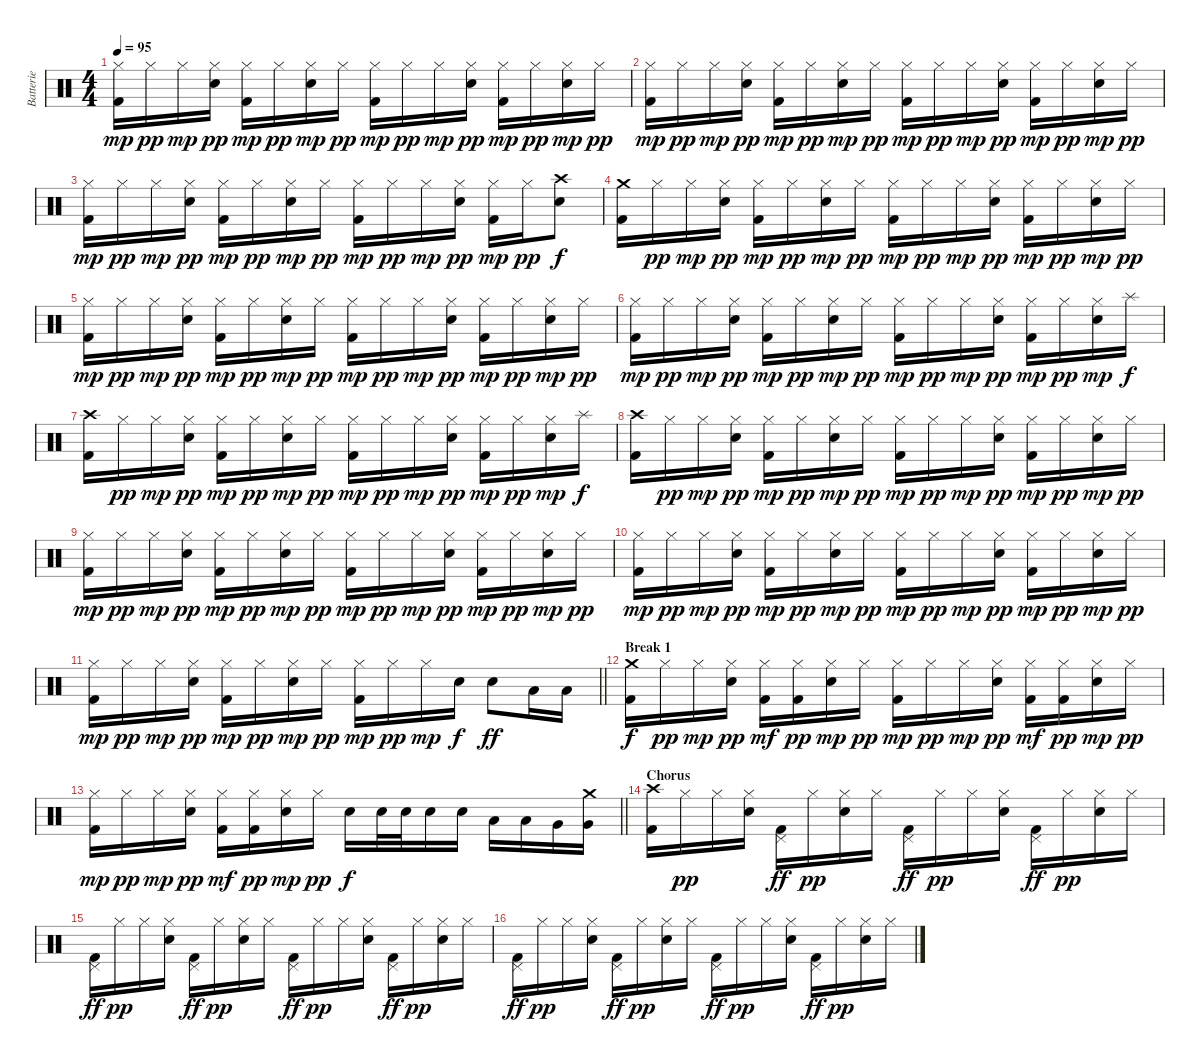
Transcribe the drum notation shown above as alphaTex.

\track ("Batterie" "Batterie") {instrument percussion}
\staff {score}
\articulation defaults
\ts (4 4)
\tempo 95
\clef neutral
\ks c
("Hi-Hat (closed)" "Kick (hit) 2").16{dy mp} "Hi-Hat (closed)".16{dy pp} "Hi-Hat (closed)".16{dy mp} ("Hi-Hat (closed)" "Electric Snare (hit)").16{dy pp} ("Hi-Hat (closed)" "Kick (hit) 2").16{dy mp} "Hi-Hat (closed)".16{dy pp} ("Hi-Hat (closed)" "Electric Snare (hit)").16{dy mp} "Hi-Hat (closed)".16{dy pp} ("Hi-Hat (closed)" "Kick (hit) 2").16{dy mp} "Hi-Hat (closed)".16{dy pp} "Hi-Hat (closed)".16{dy mp} ("Hi-Hat (closed)" "Electric Snare (hit)").16{dy pp} ("Hi-Hat (closed)" "Kick (hit) 2").16{dy mp} "Hi-Hat (closed)".16{dy pp} ("Hi-Hat (closed)" "Electric Snare (hit)").16{dy mp} "Hi-Hat (closed)".16{dy pp} |
("Hi-Hat (closed)" "Kick (hit) 2").16{dy mp} "Hi-Hat (closed)".16{dy pp} "Hi-Hat (closed)".16{dy mp} ("Hi-Hat (closed)" "Electric Snare (hit)").16{dy pp} ("Hi-Hat (closed)" "Kick (hit) 2").16{dy mp} "Hi-Hat (closed)".16{dy pp} ("Hi-Hat (closed)" "Electric Snare (hit)").16{dy mp} "Hi-Hat (closed)".16{dy pp} ("Hi-Hat (closed)" "Kick (hit) 2").16{dy mp} "Hi-Hat (closed)".16{dy pp} "Hi-Hat (closed)".16{dy mp} ("Hi-Hat (closed)" "Electric Snare (hit)").16{dy pp} ("Hi-Hat (closed)" "Kick (hit) 2").16{dy mp} "Hi-Hat (closed)".16{dy pp} ("Hi-Hat (closed)" "Electric Snare (hit)").16{dy mp} "Hi-Hat (closed)".16{dy pp} |
("Hi-Hat (closed)" "Kick (hit) 2").16{dy mp} "Hi-Hat (closed)".16{dy pp} "Hi-Hat (closed)".16{dy mp} ("Hi-Hat (closed)" "Electric Snare (hit)").16{dy pp} ("Hi-Hat (closed)" "Kick (hit) 2").16{dy mp} "Hi-Hat (closed)".16{dy pp} ("Hi-Hat (closed)" "Electric Snare (hit)").16{dy mp} "Hi-Hat (closed)".16{dy pp} ("Hi-Hat (closed)" "Kick (hit) 2").16{dy mp} "Hi-Hat (closed)".16{dy pp} "Hi-Hat (closed)".16{dy mp} ("Hi-Hat (closed)" "Electric Snare (hit)").16{dy pp} ("Hi-Hat (closed)" "Kick (hit) 2").16{dy mp} "Hi-Hat (closed)".16{dy pp} ("Crash high (hit)" "Electric Snare (hit)").8{dy f} |
("Crash medium (hit)" "Kick (hit) 2").16 "Hi-Hat (closed)".16{dy pp} "Hi-Hat (closed)".16{dy mp} ("Hi-Hat (closed)" "Electric Snare (hit)").16{dy pp} ("Hi-Hat (closed)" "Kick (hit) 2").16{dy mp} "Hi-Hat (closed)".16{dy pp} ("Hi-Hat (closed)" "Electric Snare (hit)").16{dy mp} "Hi-Hat (closed)".16{dy pp} ("Hi-Hat (closed)" "Kick (hit) 2").16{dy mp} "Hi-Hat (closed)".16{dy pp} "Hi-Hat (closed)".16{dy mp} ("Hi-Hat (closed)" "Electric Snare (hit)").16{dy pp} ("Hi-Hat (closed)" "Kick (hit) 2").16{dy mp} "Hi-Hat (closed)".16{dy pp} ("Hi-Hat (closed)" "Electric Snare (hit)").16{dy mp} "Hi-Hat (closed)".16{dy pp} |
("Hi-Hat (closed)" "Kick (hit) 2").16{dy mp} "Hi-Hat (closed)".16{dy pp} "Hi-Hat (closed)".16{dy mp} ("Hi-Hat (closed)" "Electric Snare (hit)").16{dy pp} ("Hi-Hat (closed)" "Kick (hit) 2").16{dy mp} "Hi-Hat (closed)".16{dy pp} ("Hi-Hat (closed)" "Electric Snare (hit)").16{dy mp} "Hi-Hat (closed)".16{dy pp} ("Hi-Hat (closed)" "Kick (hit) 2").16{dy mp} "Hi-Hat (closed)".16{dy pp} "Hi-Hat (closed)".16{dy mp} ("Hi-Hat (closed)" "Electric Snare (hit)").16{dy pp} ("Hi-Hat (closed)" "Kick (hit) 2").16{dy mp} "Hi-Hat (closed)".16{dy pp} ("Hi-Hat (closed)" "Electric Snare (hit)").16{dy mp} "Hi-Hat (closed)".16{dy pp} |
("Hi-Hat (closed)" "Kick (hit) 2").16{dy mp} "Hi-Hat (closed)".16{dy pp} "Hi-Hat (closed)".16{dy mp} ("Hi-Hat (closed)" "Electric Snare (hit)").16{dy pp} ("Hi-Hat (closed)" "Kick (hit) 2").16{dy mp} "Hi-Hat (closed)".16{dy pp} ("Hi-Hat (closed)" "Electric Snare (hit)").16{dy mp} "Hi-Hat (closed)".16{dy pp} ("Hi-Hat (closed)" "Kick (hit) 2").16{dy mp} "Hi-Hat (closed)".16{dy pp} "Hi-Hat (closed)".16{dy mp} ("Hi-Hat (closed)" "Electric Snare (hit)").16{dy pp} ("Hi-Hat (closed)" "Kick (hit) 2").16{dy mp} "Hi-Hat (closed)".16{dy pp} ("Hi-Hat (closed)" "Electric Snare (hit)").16{dy mp} "Splash (hit)".16{dy f} |
("Crash high (hit)" "Kick (hit) 2").16 "Hi-Hat (closed)".16{dy pp} "Hi-Hat (closed)".16{dy mp} ("Hi-Hat (closed)" "Electric Snare (hit)").16{dy pp} ("Hi-Hat (closed)" "Kick (hit) 2").16{dy mp} "Hi-Hat (closed)".16{dy pp} ("Hi-Hat (closed)" "Electric Snare (hit)").16{dy mp} "Hi-Hat (closed)".16{dy pp} ("Hi-Hat (closed)" "Kick (hit) 2").16{dy mp} "Hi-Hat (closed)".16{dy pp} "Hi-Hat (closed)".16{dy mp} ("Hi-Hat (closed)" "Electric Snare (hit)").16{dy pp} ("Hi-Hat (closed)" "Kick (hit) 2").16{dy mp} "Hi-Hat (closed)".16{dy pp} ("Hi-Hat (closed)" "Electric Snare (hit)").16{dy mp} "Splash (hit)".16{dy f} |
("Crash high (hit)" "Kick (hit) 2").16 "Hi-Hat (closed)".16{dy pp} "Hi-Hat (closed)".16{dy mp} ("Hi-Hat (closed)" "Electric Snare (hit)").16{dy pp} ("Hi-Hat (closed)" "Kick (hit) 2").16{dy mp} "Hi-Hat (closed)".16{dy pp} ("Hi-Hat (closed)" "Electric Snare (hit)").16{dy mp} "Hi-Hat (closed)".16{dy pp} ("Hi-Hat (closed)" "Kick (hit) 2").16{dy mp} "Hi-Hat (closed)".16{dy pp} "Hi-Hat (closed)".16{dy mp} ("Hi-Hat (closed)" "Electric Snare (hit)").16{dy pp} ("Hi-Hat (closed)" "Kick (hit) 2").16{dy mp} "Hi-Hat (closed)".16{dy pp} ("Hi-Hat (closed)" "Electric Snare (hit)").16{dy mp} "Hi-Hat (closed)".16{dy pp} |
("Hi-Hat (closed)" "Kick (hit) 2").16{dy mp} "Hi-Hat (closed)".16{dy pp} "Hi-Hat (closed)".16{dy mp} ("Hi-Hat (closed)" "Electric Snare (hit)").16{dy pp} ("Hi-Hat (closed)" "Kick (hit) 2").16{dy mp} "Hi-Hat (closed)".16{dy pp} ("Hi-Hat (closed)" "Electric Snare (hit)").16{dy mp} "Hi-Hat (closed)".16{dy pp} ("Hi-Hat (closed)" "Kick (hit) 2").16{dy mp} "Hi-Hat (closed)".16{dy pp} "Hi-Hat (closed)".16{dy mp} ("Hi-Hat (closed)" "Electric Snare (hit)").16{dy pp} ("Hi-Hat (closed)" "Kick (hit) 2").16{dy mp} "Hi-Hat (closed)".16{dy pp} ("Hi-Hat (closed)" "Electric Snare (hit)").16{dy mp} "Hi-Hat (closed)".16{dy pp} |
("Hi-Hat (closed)" "Kick (hit) 2").16{dy mp} "Hi-Hat (closed)".16{dy pp} "Hi-Hat (closed)".16{dy mp} ("Hi-Hat (closed)" "Electric Snare (hit)").16{dy pp} ("Hi-Hat (closed)" "Kick (hit) 2").16{dy mp} "Hi-Hat (closed)".16{dy pp} ("Hi-Hat (closed)" "Electric Snare (hit)").16{dy mp} "Hi-Hat (closed)".16{dy pp} ("Hi-Hat (closed)" "Kick (hit) 2").16{dy mp} "Hi-Hat (closed)".16{dy pp} "Hi-Hat (closed)".16{dy mp} ("Hi-Hat (closed)" "Electric Snare (hit)").16{dy pp} ("Hi-Hat (closed)" "Kick (hit) 2").16{dy mp} "Hi-Hat (closed)".16{dy pp} ("Hi-Hat (closed)" "Electric Snare (hit)").16{dy mp} "Hi-Hat (closed)".16{dy pp} |
\barLineRight lightlight
("Hi-Hat (closed)" "Kick (hit) 2").16{dy mp} "Hi-Hat (closed)".16{dy pp} "Hi-Hat (closed)".16{dy mp} ("Hi-Hat (closed)" "Electric Snare (hit)").16{dy pp} ("Hi-Hat (closed)" "Kick (hit) 2").16{dy mp} "Hi-Hat (closed)".16{dy pp} ("Hi-Hat (closed)" "Electric Snare (hit)").16{dy mp} "Hi-Hat (closed)".16{dy pp} ("Hi-Hat (closed)" "Kick (hit) 2").16{dy mp} "Hi-Hat (closed)".16{dy pp} "Hi-Hat (closed)".16{dy mp} "Electric Snare (hit)".16{dy f} "Electric Snare (hit)".8{dy ff} "Low Tom (hit)".16 "Low Tom (hit)".16 |
\section ("" "Break 1")
("Crash medium (hit)" "Kick (hit) 2").16{dy f} "Hi-Hat (closed)".16{dy pp} "Hi-Hat (closed)".16{dy mp} ("Hi-Hat (closed)" "Electric Snare (hit)").16{dy pp} ("Hi-Hat (closed)" "Kick (hit) 2").16{dy mf} ("Hi-Hat (closed)" "Kick (hit) 2").16{dy pp} ("Hi-Hat (closed)" "Electric Snare (hit)").16{dy mp} "Hi-Hat (closed)".16{dy pp} ("Hi-Hat (closed)" "Kick (hit) 2").16{dy mp} "Hi-Hat (closed)".16{dy pp} "Hi-Hat (closed)".16{dy mp} ("Hi-Hat (closed)" "Electric Snare (hit)").16{dy pp} ("Hi-Hat (closed)" "Kick (hit) 2").16{dy mf} ("Hi-Hat (closed)" "Kick (hit) 2").16{dy pp} ("Hi-Hat (closed)" "Electric Snare (hit)").16{dy mp} "Hi-Hat (closed)".16{dy pp} |
\barLineRight lightlight
("Hi-Hat (closed)" "Kick (hit) 2").16{dy mp} "Hi-Hat (closed)".16{dy pp} "Hi-Hat (closed)".16{dy mp} ("Hi-Hat (closed)" "Electric Snare (hit)").16{dy pp} ("Hi-Hat (closed)" "Kick (hit) 2").16{dy mf} ("Hi-Hat (closed)" "Kick (hit) 2").16{dy pp} ("Hi-Hat (closed)" "Electric Snare (hit)").16{dy mp} "Hi-Hat (closed)".16{dy pp} "Electric Snare (hit)".16{dy f} "Electric Snare (hit)".32 "Electric Snare (hit)".32 "Electric Snare (hit)".16 "Electric Snare (hit)".16 "Low Tom (hit)".16 "Low Tom (hit)".16 "Very Low Tom (hit)".16 ("Crash medium (hit)" "Very Low Tom (hit)").16 |
\section ("" "Chorus")
("Crash high (hit)" "Kick (hit) 2").16 "Hi-Hat (closed)".16{dy pp} "Hi-Hat (closed)".16 ("Hi-Hat (closed)" "Electric Snare (hit)").16 ("Pedal Hi-Hat (hit)" "Kick (hit) 2").16{dy ff} "Hi-Hat (closed)".16{dy pp} ("Hi-Hat (closed)" "Electric Snare (hit)").16 "Hi-Hat (closed)".16 ("Pedal Hi-Hat (hit)" "Kick (hit) 2").16{dy ff} "Hi-Hat (closed)".16{dy pp} "Hi-Hat (closed)".16 ("Hi-Hat (closed)" "Electric Snare (hit)").16 ("Pedal Hi-Hat (hit)" "Kick (hit) 2").16{dy ff} "Hi-Hat (closed)".16{dy pp} ("Hi-Hat (closed)" "Electric Snare (hit)").16 "Hi-Hat (closed)".16 |
("Pedal Hi-Hat (hit)" "Kick (hit) 2").16{dy ff} "Hi-Hat (closed)".16{dy pp} "Hi-Hat (closed)".16 ("Hi-Hat (closed)" "Electric Snare (hit)").16 ("Pedal Hi-Hat (hit)" "Kick (hit) 2").16{dy ff} "Hi-Hat (closed)".16{dy pp} ("Hi-Hat (closed)" "Electric Snare (hit)").16 "Hi-Hat (closed)".16 ("Pedal Hi-Hat (hit)" "Kick (hit) 2").16{dy ff} "Hi-Hat (closed)".16{dy pp} "Hi-Hat (closed)".16 ("Hi-Hat (closed)" "Electric Snare (hit)").16 ("Pedal Hi-Hat (hit)" "Kick (hit) 2").16{dy ff} "Hi-Hat (closed)".16{dy pp} ("Hi-Hat (closed)" "Electric Snare (hit)").16 "Hi-Hat (closed)".16 |
("Pedal Hi-Hat (hit)" "Kick (hit) 2").16{dy ff} "Hi-Hat (closed)".16{dy pp} "Hi-Hat (closed)".16 ("Hi-Hat (closed)" "Electric Snare (hit)").16 ("Pedal Hi-Hat (hit)" "Kick (hit) 2").16{dy ff} "Hi-Hat (closed)".16{dy pp} ("Hi-Hat (closed)" "Electric Snare (hit)").16 "Hi-Hat (closed)".16 ("Pedal Hi-Hat (hit)" "Kick (hit) 2").16{dy ff} "Hi-Hat (closed)".16{dy pp} "Hi-Hat (closed)".16 ("Hi-Hat (closed)" "Electric Snare (hit)").16 ("Pedal Hi-Hat (hit)" "Kick (hit) 2").16{dy ff} "Hi-Hat (closed)".16{dy pp} ("Hi-Hat (closed)" "Electric Snare (hit)").16 "Hi-Hat (closed)".16
